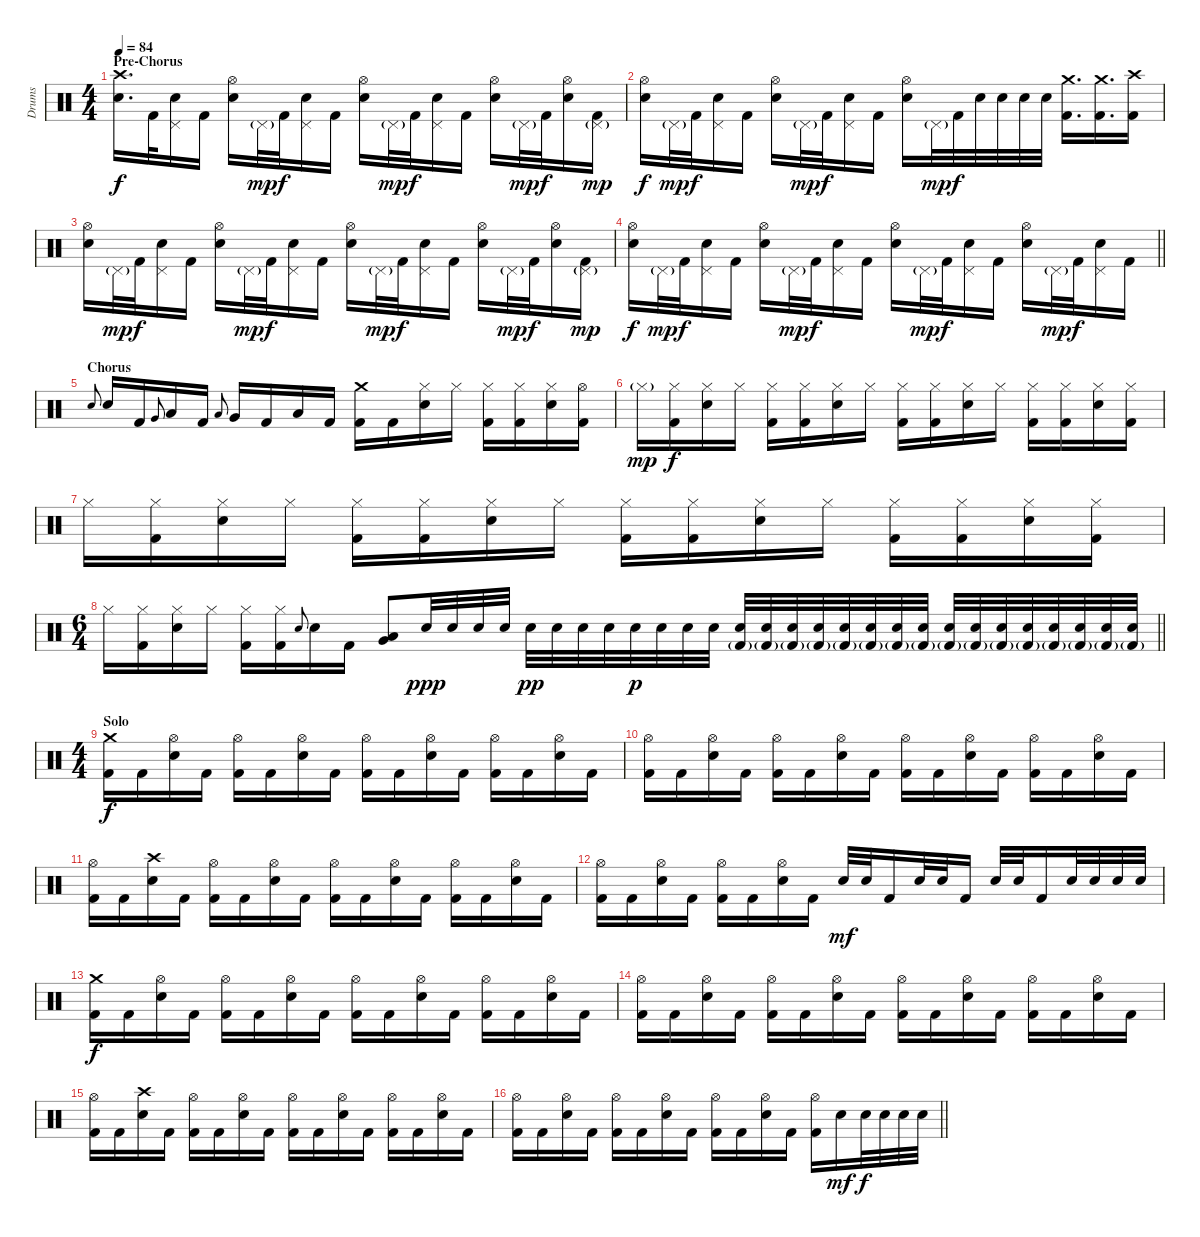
\track ("Drums" "Drums") {instrument percussion}
\staff {score}
\articulation defaults
\ts (4 4)
\section ("" "Pre-Chorus")
\tempo 84
\clef neutral
\ks c
("Crash high (hit)" "Snare (hit) 2").16{d dy f} "Kick (hit) 2".32 ("Pedal Hi-Hat (hit)" "Snare (hit) 2").16 "Kick (hit) 2".16 ("Hi-Hat (open)" "Snare (hit) 2").16 "Pedal Hi-Hat (hit)"{g}.32{dy mp} "Kick (hit) 2".32{dy f} ("Pedal Hi-Hat (hit)" "Snare (hit) 2").16 "Kick (hit) 2".16 ("Hi-Hat (open)" "Snare (hit) 2").16 "Pedal Hi-Hat (hit)"{g}.32{dy mp} "Kick (hit) 2".32{dy f} ("Pedal Hi-Hat (hit)" "Snare (hit) 2").16 "Kick (hit) 2".16 ("Hi-Hat (open)" "Snare (hit) 2").16 "Pedal Hi-Hat (hit)"{g}.32{dy mp} "Kick (hit) 2".32{dy f} ("Hi-Hat (open)" "Snare (hit) 2").16 ("Pedal Hi-Hat (hit)"{g} "Kick (hit) 2").16{dy mp} |
("Hi-Hat (open)" "Snare (hit) 2").16{dy f} "Pedal Hi-Hat (hit)"{g}.32{dy mp} "Kick (hit) 2".32{dy f} ("Pedal Hi-Hat (hit)" "Snare (hit) 2").16 "Kick (hit) 2".16 ("Hi-Hat (open)" "Snare (hit) 2").16 "Pedal Hi-Hat (hit)"{g}.32{dy mp} "Kick (hit) 2".32{dy f} ("Pedal Hi-Hat (hit)" "Snare (hit) 2").16 "Kick (hit) 2".16 ("Hi-Hat (open)" "Snare (hit) 2").16 "Pedal Hi-Hat (hit)"{g}.32{dy mp} "Kick (hit) 2".32{dy f} "Snare (hit) 2".32 "Snare (hit) 2".32 "Snare (hit) 2".32 "Snare (hit) 2".32 ("Crash medium (hit)" "Kick (hit) 2").16{d} ("Crash medium (hit)" "Kick (hit) 2").16{d} ("Crash high (hit)" "Kick (hit) 2").16 |
("Hi-Hat (open)" "Snare (hit) 2").16 "Pedal Hi-Hat (hit)"{g}.32{dy mp} "Kick (hit) 2".32{dy f} ("Pedal Hi-Hat (hit)" "Snare (hit) 2").16 "Kick (hit) 2".16 ("Hi-Hat (open)" "Snare (hit) 2").16 "Pedal Hi-Hat (hit)"{g}.32{dy mp} "Kick (hit) 2".32{dy f} ("Pedal Hi-Hat (hit)" "Snare (hit) 2").16 "Kick (hit) 2".16 ("Hi-Hat (open)" "Snare (hit) 2").16 "Pedal Hi-Hat (hit)"{g}.32{dy mp} "Kick (hit) 2".32{dy f} ("Pedal Hi-Hat (hit)" "Snare (hit) 2").16 "Kick (hit) 2".16 ("Hi-Hat (open)" "Snare (hit) 2").16 "Pedal Hi-Hat (hit)"{g}.32{dy mp} "Kick (hit) 2".32{dy f} ("Hi-Hat (open)" "Snare (hit) 2").16 ("Pedal Hi-Hat (hit)"{g} "Kick (hit) 2").16{dy mp} |
\barLineRight lightlight
("Hi-Hat (open)" "Snare (hit) 2").16{dy f} "Pedal Hi-Hat (hit)"{g}.32{dy mp} "Kick (hit) 2".32{dy f} ("Pedal Hi-Hat (hit)" "Snare (hit) 2").16 "Kick (hit) 2".16 ("Hi-Hat (open)" "Snare (hit) 2").16 "Pedal Hi-Hat (hit)"{g}.32{dy mp} "Kick (hit) 2".32{dy f} ("Pedal Hi-Hat (hit)" "Snare (hit) 2").16 "Kick (hit) 2".16 ("Hi-Hat (open)" "Snare (hit) 2").16 "Pedal Hi-Hat (hit)"{g}.32{dy mp} "Kick (hit) 2".32{dy f} ("Pedal Hi-Hat (hit)" "Snare (hit) 2").16 "Kick (hit) 2".16 ("Hi-Hat (open)" "Snare (hit) 2").16 "Pedal Hi-Hat (hit)"{g}.32{dy mp} "Kick (hit) 2".32{dy f} ("Pedal Hi-Hat (hit)" "Snare (hit) 2").16 "Kick (hit) 2".16 |
\section ("" "Chorus")
"Snare (hit) 2".8{gr onbeat} "Snare (hit) 2".16 "Kick (hit) 2".16 "Very Low Tom (hit)".8{gr onbeat} "Low Tom (hit)".16 "Kick (hit) 2".16 "Low Floor Tom (hit)".8{gr onbeat} "Very Low Tom (hit)".16 "Kick (hit) 2".16 "Low Floor Tom (hit)".16 "Kick (hit) 2".16 ("Crash medium (hit)" "Kick (hit) 2").16 "Kick (hit) 2".16 ("Hi-Hat (closed)" "Snare (hit) 2").16 "Hi-Hat (closed)".16 ("Hi-Hat (closed)" "Kick (hit) 2").16 ("Hi-Hat (closed)" "Kick (hit) 2").16 ("Hi-Hat (closed)" "Snare (hit) 2").16 ("Hi-Hat (open)" "Kick (hit) 2").16 |
"Hi-Hat (closed)"{g}.16{dy mp} ("Hi-Hat (closed)" "Kick (hit) 2").16{dy f} ("Hi-Hat (closed)" "Snare (hit) 2").16 "Hi-Hat (closed)".16 ("Hi-Hat (closed)" "Kick (hit) 2").16 ("Hi-Hat (closed)" "Kick (hit) 2").16 ("Hi-Hat (closed)" "Snare (hit) 2").16 "Hi-Hat (closed)".16 ("Hi-Hat (closed)" "Kick (hit) 2").16 ("Hi-Hat (closed)" "Kick (hit) 2").16 ("Hi-Hat (closed)" "Snare (hit) 2").16 "Hi-Hat (closed)".16 ("Hi-Hat (closed)" "Kick (hit) 2").16 ("Hi-Hat (closed)" "Kick (hit) 2").16 ("Hi-Hat (closed)" "Snare (hit) 2").16 ("Hi-Hat (closed)" "Kick (hit) 2").16 |
"Hi-Hat (closed)".16 ("Hi-Hat (closed)" "Kick (hit) 2").16 ("Hi-Hat (closed)" "Snare (hit) 2").16 "Hi-Hat (closed)".16 ("Hi-Hat (closed)" "Kick (hit) 2").16 ("Hi-Hat (closed)" "Kick (hit) 2").16 ("Hi-Hat (closed)" "Snare (hit) 2").16 "Hi-Hat (closed)".16 ("Hi-Hat (closed)" "Kick (hit) 2").16 ("Hi-Hat (closed)" "Kick (hit) 2").16 ("Hi-Hat (closed)" "Snare (hit) 2").16 "Hi-Hat (closed)".16 ("Hi-Hat (closed)" "Kick (hit) 2").16 ("Hi-Hat (closed)" "Kick (hit) 2").16 ("Hi-Hat (closed)" "Snare (hit) 2").16 ("Hi-Hat (closed)" "Kick (hit) 2").16 |
\ts (6 4)
\barLineRight lightlight "Hi-Hat (closed)".16
("Hi-Hat (closed)" "Kick (hit) 2").16 ("Hi-Hat (closed)" "Snare (hit) 2").16 "Hi-Hat (closed)".16 ("Hi-Hat (closed)" "Kick (hit) 2").16 ("Hi-Hat (closed)" "Kick (hit) 2").16 "Snare (hit) 2".8{gr onbeat} "Snare (hit) 2".16 "Kick (hit) 2".16 ("Low Floor Tom (hit)" "Very Low Tom (hit)").8 "Snare (hit) 2".32{dy ppp} "Snare (hit) 2".32 "Snare (hit) 2".32 "Snare (hit) 2".32 "Snare (hit) 2".32{dy pp} "Snare (hit) 2".32 "Snare (hit) 2".32 "Snare (hit) 2".32 "Snare (hit) 2".32{dy p} "Snare (hit) 2".32 "Snare (hit) 2".32 "Snare (hit) 2".32 ("Snare (hit) 2" "Kick (hit) 2"{g}).32 ("Snare (hit) 2" "Kick (hit) 2"{g}).32 ("Snare (hit) 2" "Kick (hit) 2"{g}).32 ("Snare (hit) 2" "Kick (hit) 2"{g}).32 ("Snare (hit) 2" "Kick (hit) 2"{g}).32 ("Snare (hit) 2" "Kick (hit) 2"{g}).32 ("Snare (hit) 2" "Kick (hit) 2"{g}).32 ("Snare (hit) 2" "Kick (hit) 2"{g}).32 ("Snare (hit) 2" "Kick (hit) 2"{g}).32 ("Snare (hit) 2" "Kick (hit) 2"{g}).32 ("Snare (hit) 2" "Kick (hit) 2"{g}).32 ("Snare (hit) 2" "Kick (hit) 2"{g}).32 ("Snare (hit) 2" "Kick (hit) 2"{g}).32 ("Snare (hit) 2" "Kick (hit) 2"{g}).32 ("Snare (hit) 2" "Kick (hit) 2"{g}).32 ("Snare (hit) 2" "Kick (hit) 2"{g}).32 |
\ts (4 4)
\section ("" "Solo")
("Crash medium (hit)" "Kick (hit) 2").16{dy f} "Kick (hit) 2".16 ("Hi-Hat (open)" "Snare (hit) 2").16 "Kick (hit) 2".16 ("Hi-Hat (open)" "Kick (hit) 2").16 "Kick (hit) 2".16 ("Hi-Hat (open)" "Snare (hit) 2").16 "Kick (hit) 2".16 ("Hi-Hat (open)" "Kick (hit) 2").16 "Kick (hit) 2".16 ("Hi-Hat (open)" "Snare (hit) 2").16 "Kick (hit) 2".16 ("Hi-Hat (open)" "Kick (hit) 2").16 "Kick (hit) 2".16 ("Hi-Hat (open)" "Snare (hit) 2").16 "Kick (hit) 2".16 |
("Hi-Hat (open)" "Kick (hit) 2").16 "Kick (hit) 2".16 ("Hi-Hat (open)" "Snare (hit) 2").16 "Kick (hit) 2".16 ("Hi-Hat (open)" "Kick (hit) 2").16 "Kick (hit) 2".16 ("Hi-Hat (open)" "Snare (hit) 2").16 "Kick (hit) 2".16 ("Hi-Hat (open)" "Kick (hit) 2").16 "Kick (hit) 2".16 ("Hi-Hat (open)" "Snare (hit) 2").16 "Kick (hit) 2".16 ("Hi-Hat (open)" "Kick (hit) 2").16 "Kick (hit) 2".16 ("Hi-Hat (open)" "Snare (hit) 2").16 "Kick (hit) 2".16 |
("Hi-Hat (open)" "Kick (hit) 2").16 "Kick (hit) 2".16 ("Crash high (hit)" "Snare (hit) 2").16 "Kick (hit) 2".16 ("Hi-Hat (open)" "Kick (hit) 2").16 "Kick (hit) 2".16 ("Hi-Hat (open)" "Snare (hit) 2").16 "Kick (hit) 2".16 ("Hi-Hat (open)" "Kick (hit) 2").16 "Kick (hit) 2".16 ("Hi-Hat (open)" "Snare (hit) 2").16 "Kick (hit) 2".16 ("Hi-Hat (open)" "Kick (hit) 2").16 "Kick (hit) 2".16 ("Hi-Hat (open)" "Snare (hit) 2").16 "Kick (hit) 2".16 |
("Hi-Hat (open)" "Kick (hit) 2").16 "Kick (hit) 2".16 ("Hi-Hat (open)" "Snare (hit) 2").16 "Kick (hit) 2".16 ("Hi-Hat (open)" "Kick (hit) 2").16 "Kick (hit) 2".16 ("Hi-Hat (open)" "Snare (hit) 2").16 "Kick (hit) 2".16 "Snare (hit) 2".32{dy mf} "Snare (hit) 2".32 "Kick (hit) 2".16 "Snare (hit) 2".32 "Snare (hit) 2".32 "Kick (hit) 2".16 "Snare (hit) 2".32 "Snare (hit) 2".32 "Kick (hit) 2".16 "Snare (hit) 2".32 "Snare (hit) 2".32 "Snare (hit) 2".32 "Snare (hit) 2".32 |
("Crash medium (hit)" "Kick (hit) 2").16{dy f} "Kick (hit) 2".16 ("Hi-Hat (open)" "Snare (hit) 2").16 "Kick (hit) 2".16 ("Hi-Hat (open)" "Kick (hit) 2").16 "Kick (hit) 2".16 ("Hi-Hat (open)" "Snare (hit) 2").16 "Kick (hit) 2".16 ("Hi-Hat (open)" "Kick (hit) 2").16 "Kick (hit) 2".16 ("Hi-Hat (open)" "Snare (hit) 2").16 "Kick (hit) 2".16 ("Hi-Hat (open)" "Kick (hit) 2").16 "Kick (hit) 2".16 ("Hi-Hat (open)" "Snare (hit) 2").16 "Kick (hit) 2".16 |
("Hi-Hat (open)" "Kick (hit) 2").16 "Kick (hit) 2".16 ("Hi-Hat (open)" "Snare (hit) 2").16 "Kick (hit) 2".16 ("Hi-Hat (open)" "Kick (hit) 2").16 "Kick (hit) 2".16 ("Hi-Hat (open)" "Snare (hit) 2").16 "Kick (hit) 2".16 ("Hi-Hat (open)" "Kick (hit) 2").16 "Kick (hit) 2".16 ("Hi-Hat (open)" "Snare (hit) 2").16 "Kick (hit) 2".16 ("Hi-Hat (open)" "Kick (hit) 2").16 "Kick (hit) 2".16 ("Hi-Hat (open)" "Snare (hit) 2").16 "Kick (hit) 2".16 |
("Hi-Hat (open)" "Kick (hit) 2").16 "Kick (hit) 2".16 ("Crash high (hit)" "Snare (hit) 2").16 "Kick (hit) 2".16 ("Hi-Hat (open)" "Kick (hit) 2").16 "Kick (hit) 2".16 ("Hi-Hat (open)" "Snare (hit) 2").16 "Kick (hit) 2".16 ("Hi-Hat (open)" "Kick (hit) 2").16 "Kick (hit) 2".16 ("Hi-Hat (open)" "Snare (hit) 2").16 "Kick (hit) 2".16 ("Hi-Hat (open)" "Kick (hit) 2").16 "Kick (hit) 2".16 ("Hi-Hat (open)" "Snare (hit) 2").16 "Kick (hit) 2".16 |
\barLineRight lightlight
("Hi-Hat (open)" "Kick (hit) 2").16 "Kick (hit) 2".16 ("Hi-Hat (open)" "Snare (hit) 2").16 "Kick (hit) 2".16 ("Hi-Hat (open)" "Kick (hit) 2").16 "Kick (hit) 2".16 ("Hi-Hat (open)" "Snare (hit) 2").16 "Kick (hit) 2".16 ("Hi-Hat (open)" "Kick (hit) 2").16 "Kick (hit) 2".16 ("Hi-Hat (open)" "Snare (hit) 2").16 "Kick (hit) 2".16 ("Hi-Hat (open)" "Kick (hit) 2").16 "Snare (hit) 2".16{dy mf} "Snare (hit) 2".32{dy f} "Snare (hit) 2".32 "Snare (hit) 2".32 "Snare (hit) 2".32
